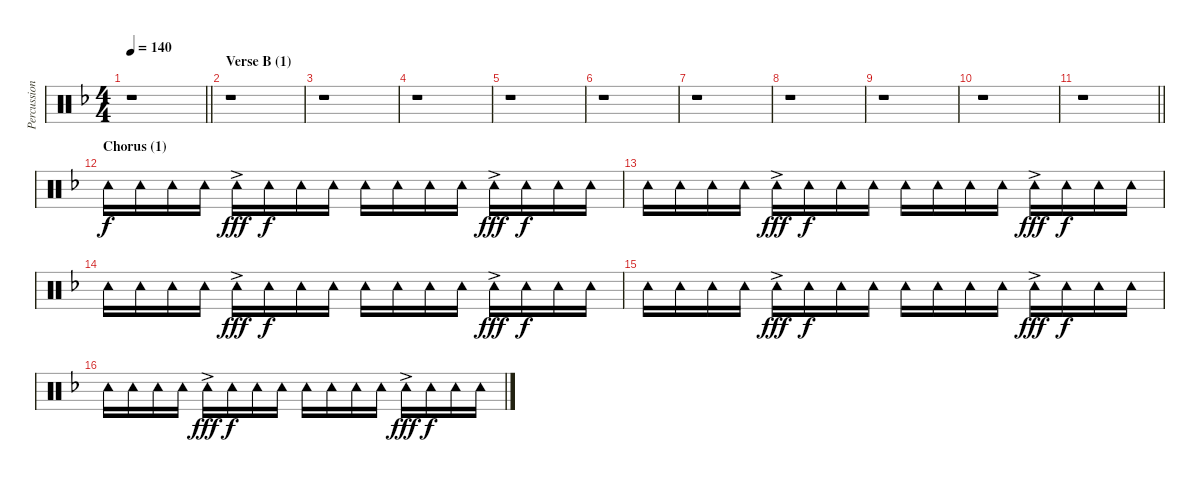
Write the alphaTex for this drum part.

\track ("Percussion" "Percussion") {instrument percussion}
\staff {score}
\articulation defaults
\ts (4 4)
\tempo 140
\clef neutral
\barLineRight lightlight
\ks f
r.1{dy f} |
\section ("" "Verse B (1)")
r.1 |
r.1 |
r.1 |
r.1 |
r.1 |
r.1 |
r.1 |
r.1 |
r.1 |
\barLineRight lightlight
r.1 |
\section ("" "Chorus (1)")
"Tambourine (hit)".16 "Tambourine (hit)".16 "Tambourine (hit)".16 "Tambourine (hit)".16 "Tambourine (hit)"{ac}.16{dy fff} "Tambourine (hit)".16{dy f} "Tambourine (hit)".16 "Tambourine (hit)".16 "Tambourine (hit)".16 "Tambourine (hit)".16 "Tambourine (hit)".16 "Tambourine (hit)".16 "Tambourine (hit)"{ac}.16{dy fff} "Tambourine (hit)".16{dy f} "Tambourine (hit)".16 "Tambourine (hit)".16 |
"Tambourine (hit)".16 "Tambourine (hit)".16 "Tambourine (hit)".16 "Tambourine (hit)".16 "Tambourine (hit)"{ac}.16{dy fff} "Tambourine (hit)".16{dy f} "Tambourine (hit)".16 "Tambourine (hit)".16 "Tambourine (hit)".16 "Tambourine (hit)".16 "Tambourine (hit)".16 "Tambourine (hit)".16 "Tambourine (hit)"{ac}.16{dy fff} "Tambourine (hit)".16{dy f} "Tambourine (hit)".16 "Tambourine (hit)".16 |
"Tambourine (hit)".16 "Tambourine (hit)".16 "Tambourine (hit)".16 "Tambourine (hit)".16 "Tambourine (hit)"{ac}.16{dy fff} "Tambourine (hit)".16{dy f} "Tambourine (hit)".16 "Tambourine (hit)".16 "Tambourine (hit)".16 "Tambourine (hit)".16 "Tambourine (hit)".16 "Tambourine (hit)".16 "Tambourine (hit)"{ac}.16{dy fff} "Tambourine (hit)".16{dy f} "Tambourine (hit)".16 "Tambourine (hit)".16 |
"Tambourine (hit)".16 "Tambourine (hit)".16 "Tambourine (hit)".16 "Tambourine (hit)".16 "Tambourine (hit)"{ac}.16{dy fff} "Tambourine (hit)".16{dy f} "Tambourine (hit)".16 "Tambourine (hit)".16 "Tambourine (hit)".16 "Tambourine (hit)".16 "Tambourine (hit)".16 "Tambourine (hit)".16 "Tambourine (hit)"{ac}.16{dy fff} "Tambourine (hit)".16{dy f} "Tambourine (hit)".16 "Tambourine (hit)".16 |
"Tambourine (hit)".16 "Tambourine (hit)".16 "Tambourine (hit)".16 "Tambourine (hit)".16 "Tambourine (hit)"{ac}.16{dy fff} "Tambourine (hit)".16{dy f} "Tambourine (hit)".16 "Tambourine (hit)".16 "Tambourine (hit)".16 "Tambourine (hit)".16 "Tambourine (hit)".16 "Tambourine (hit)".16 "Tambourine (hit)"{ac}.16{dy fff} "Tambourine (hit)".16{dy f} "Tambourine (hit)".16 "Tambourine (hit)".16
